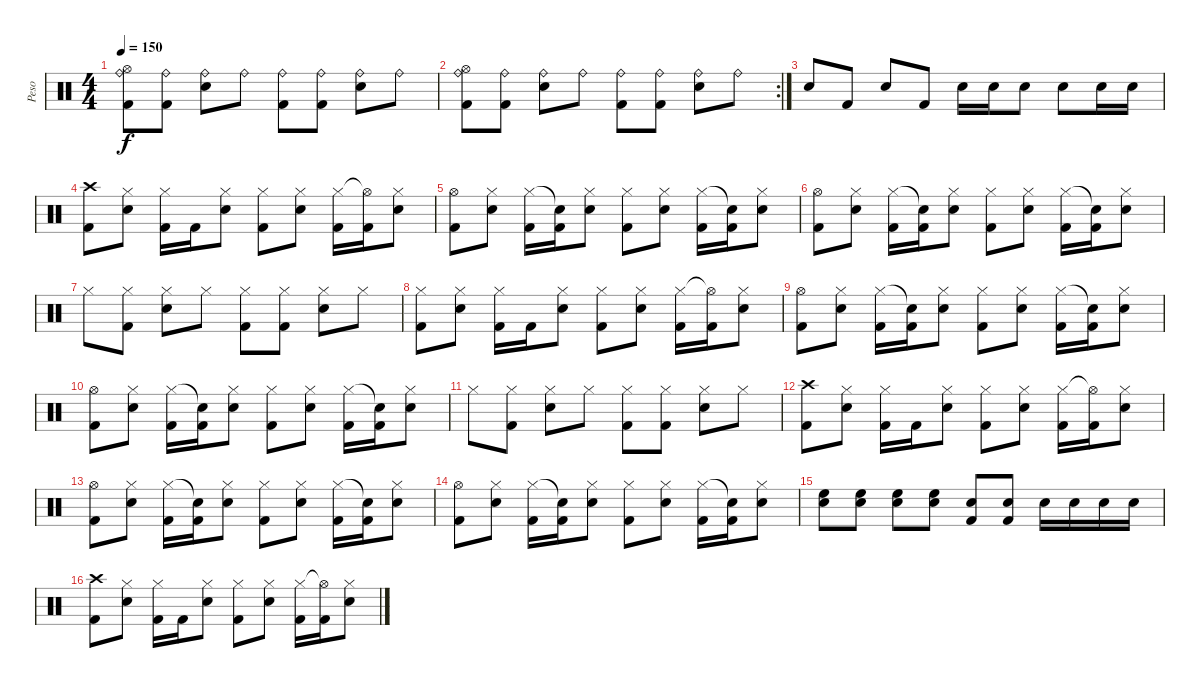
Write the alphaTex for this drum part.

\track ("Peso" "Peso") {instrument percussion}
\staff {score}
\articulation defaults
\ts (4 4)
\tempo 150
\clef neutral
\ks c
("Hi-Hat (open)" "Ride (bell)" "Kick (hit) 2").8{dy f} ("Ride (bell)"{x} "Kick (hit) 2").8 ("Ride (bell)" "Snare (hit) 2").8 "Ride (bell)"{x}.8 ("Ride (bell)" "Kick (hit) 2").8 ("Ride (bell)"{x} "Kick (hit) 2").8 ("Ride (bell)" "Snare (hit) 2").8 "Ride (bell)"{x}.8 |
\rc 2
("Hi-Hat (open)" "Ride (bell)" "Kick (hit) 2").8 ("Ride (bell)"{x} "Kick (hit) 2").8 ("Ride (bell)" "Snare (hit) 2").8 "Ride (bell)"{x}.8 ("Ride (bell)" "Kick (hit) 2").8 ("Ride (bell)"{x} "Kick (hit) 2").8 ("Ride (bell)" "Snare (hit) 2").8 "Ride (bell)"{x}.8 |
"Snare (hit) 2".8 "Kick (hit) 2".8 "Snare (hit) 2".8 "Kick (hit) 2".8 "Snare (hit) 2".16 "Snare (hit) 2".16 "Snare (hit) 2".8 "Snare (hit) 2".8 "Snare (hit) 2".16 "Snare (hit) 2".16 |
("Crash high (hit)" "Kick (hit) 2").8 ("Hi-Hat (closed)" "Snare (hit) 2").8 ("Hi-Hat (closed)" "Kick (hit) 2").16 "Kick (hit) 2".16 ("Hi-Hat (closed)" "Snare (hit) 2").8 ("Hi-Hat (closed)" "Kick (hit) 2").8 ("Hi-Hat (closed)" "Snare (hit) 2").8 ("Hi-Hat (closed)" "Kick (hit) 2").16 ("Hi-Hat (open)"{t} "Kick (hit) 2").16 ("Hi-Hat (closed)" "Snare (hit) 2").8 |
("Hi-Hat (open)" "Kick (hit) 2").8 ("Hi-Hat (closed)" "Snare (hit) 2").8 ("Hi-Hat (closed)" "Kick (hit) 2").16 ("Snare (hit)"{t} "Kick (hit) 2").16 ("Hi-Hat (closed)" "Snare (hit) 2").8 ("Hi-Hat (closed)" "Kick (hit) 2").8 ("Hi-Hat (closed)" "Snare (hit) 2").8 ("Hi-Hat (closed)" "Kick (hit) 2").16 ("Snare (hit)"{t} "Kick (hit) 2").16 ("Hi-Hat (closed)" "Snare (hit) 2").8 |
("Hi-Hat (open)" "Kick (hit) 2").8 ("Hi-Hat (closed)" "Snare (hit) 2").8 ("Hi-Hat (closed)" "Kick (hit) 2").16 ("Snare (hit)"{t} "Kick (hit) 2").16 ("Hi-Hat (closed)" "Snare (hit) 2").8 ("Hi-Hat (closed)" "Kick (hit) 2").8 ("Hi-Hat (closed)" "Snare (hit) 2").8 ("Hi-Hat (closed)" "Kick (hit) 2").16 ("Snare (hit)"{t} "Kick (hit) 2").16 ("Hi-Hat (closed)" "Snare (hit) 2").8 |
"Hi-Hat (closed)".8 ("Hi-Hat (closed)" "Kick (hit) 2").8 ("Hi-Hat (closed)" "Snare (hit) 2").8 "Hi-Hat (closed)".8 ("Hi-Hat (closed)" "Kick (hit) 2").8 ("Hi-Hat (closed)" "Kick (hit) 2").8 ("Hi-Hat (closed)" "Snare (hit) 2").8 "Hi-Hat (closed)".8 |
("Hi-Hat (closed)" "Kick (hit) 2").8 ("Hi-Hat (closed)" "Snare (hit) 2").8 ("Hi-Hat (closed)" "Kick (hit) 2").16 "Kick (hit) 2".16 ("Hi-Hat (closed)" "Snare (hit) 2").8 ("Hi-Hat (closed)" "Kick (hit) 2").8 ("Hi-Hat (closed)" "Snare (hit) 2").8 ("Hi-Hat (closed)" "Kick (hit) 2").16 ("Hi-Hat (open)"{t} "Kick (hit) 2").16 ("Hi-Hat (closed)" "Snare (hit) 2").8 |
("Hi-Hat (open)" "Kick (hit) 2").8 ("Hi-Hat (closed)" "Snare (hit) 2").8 ("Hi-Hat (closed)" "Kick (hit) 2").16 ("Snare (hit)"{t} "Kick (hit) 2").16 ("Hi-Hat (closed)" "Snare (hit) 2").8 ("Hi-Hat (closed)" "Kick (hit) 2").8 ("Hi-Hat (closed)" "Snare (hit) 2").8 ("Hi-Hat (closed)" "Kick (hit) 2").16 ("Snare (hit)"{t} "Kick (hit) 2").16 ("Hi-Hat (closed)" "Snare (hit) 2").8 |
("Hi-Hat (open)" "Kick (hit) 2").8 ("Hi-Hat (closed)" "Snare (hit) 2").8 ("Hi-Hat (closed)" "Kick (hit) 2").16 ("Snare (hit)"{t} "Kick (hit) 2").16 ("Hi-Hat (closed)" "Snare (hit) 2").8 ("Hi-Hat (closed)" "Kick (hit) 2").8 ("Hi-Hat (closed)" "Snare (hit) 2").8 ("Hi-Hat (closed)" "Kick (hit) 2").16 ("Snare (hit)"{t} "Kick (hit) 2").16 ("Hi-Hat (closed)" "Snare (hit) 2").8 |
"Hi-Hat (closed)".8 ("Hi-Hat (closed)" "Kick (hit) 2").8 ("Hi-Hat (closed)" "Snare (hit) 2").8 "Hi-Hat (closed)".8 ("Hi-Hat (closed)" "Kick (hit) 2").8 ("Hi-Hat (closed)" "Kick (hit) 2").8 ("Hi-Hat (closed)" "Snare (hit) 2").8 "Hi-Hat (closed)".8 |
("Crash high (hit)" "Kick (hit) 2").8 ("Hi-Hat (closed)" "Snare (hit) 2").8 ("Hi-Hat (closed)" "Kick (hit) 2").16 "Kick (hit) 2".16 ("Hi-Hat (closed)" "Snare (hit) 2").8 ("Hi-Hat (closed)" "Kick (hit) 2").8 ("Hi-Hat (closed)" "Snare (hit) 2").8 ("Hi-Hat (closed)" "Kick (hit) 2").16 ("Hi-Hat (open)"{t} "Kick (hit) 2").16 ("Hi-Hat (closed)" "Snare (hit) 2").8 |
("Hi-Hat (open)" "Kick (hit) 2").8 ("Hi-Hat (closed)" "Snare (hit) 2").8 ("Hi-Hat (closed)" "Kick (hit) 2").16 ("Snare (hit)"{t} "Kick (hit) 2").16 ("Hi-Hat (closed)" "Snare (hit) 2").8 ("Hi-Hat (closed)" "Kick (hit) 2").8 ("Hi-Hat (closed)" "Snare (hit) 2").8 ("Hi-Hat (closed)" "Kick (hit) 2").16 ("Snare (hit)"{t} "Kick (hit) 2").16 ("Hi-Hat (closed)" "Snare (hit) 2").8 |
("Hi-Hat (open)" "Kick (hit) 2").8 ("Hi-Hat (closed)" "Snare (hit) 2").8 ("Hi-Hat (closed)" "Kick (hit) 2").16 ("Snare (hit)"{t} "Kick (hit) 2").16 ("Hi-Hat (closed)" "Snare (hit) 2").8 ("Hi-Hat (closed)" "Kick (hit) 2").8 ("Hi-Hat (closed)" "Snare (hit) 2").8 ("Hi-Hat (closed)" "Kick (hit) 2").16 ("Snare (hit)"{t} "Kick (hit) 2").16 ("Hi-Hat (closed)" "Snare (hit) 2").8 |
("High Floor Tom (hit)" "Snare (hit) 2").8 ("High Floor Tom (hit)" "Snare (hit) 2").8 ("High Floor Tom (hit)" "Snare (hit) 2").8 ("High Floor Tom (hit)" "Snare (hit) 2").8 ("Kick (hit) 2" "Snare (hit) 2").8 ("Kick (hit) 2" "Snare (hit) 2").8 "Snare (hit) 2".16 "Snare (hit) 2".16 "Snare (hit) 2".16 "Snare (hit) 2".16 |
("Crash high (hit)" "Kick (hit) 2").8 ("Hi-Hat (closed)" "Snare (hit) 2").8 ("Hi-Hat (closed)" "Kick (hit) 2").16 "Kick (hit) 2".16 ("Hi-Hat (closed)" "Snare (hit) 2").8 ("Hi-Hat (closed)" "Kick (hit) 2").8 ("Hi-Hat (closed)" "Snare (hit) 2").8 ("Hi-Hat (closed)" "Kick (hit) 2").16 ("Hi-Hat (open)"{t} "Kick (hit) 2").16 ("Hi-Hat (closed)" "Snare (hit) 2").8
